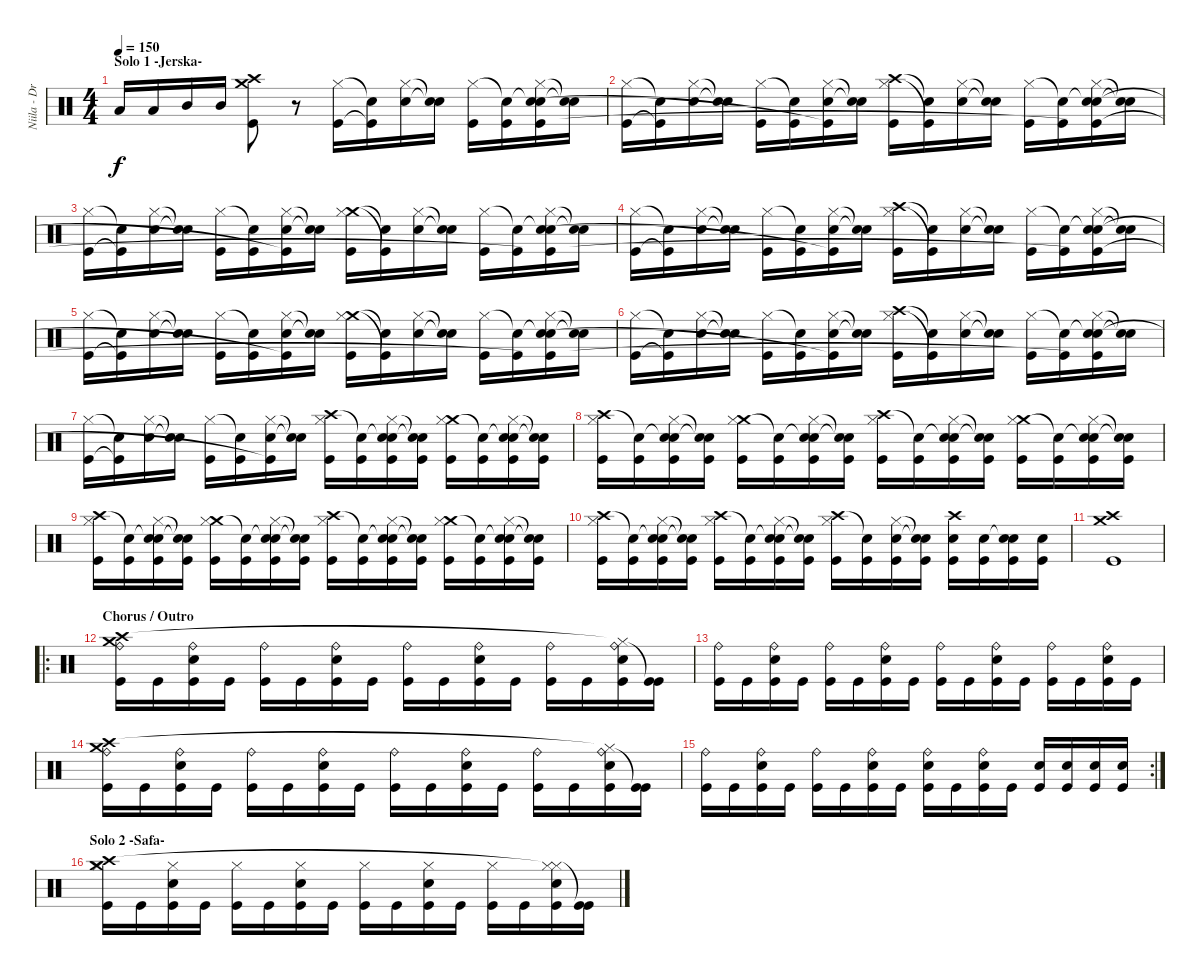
\track ("Niila - Drums" "Niila - Dr") {instrument percussion}
\staff {score}
\articulation defaults
\ts (4 4)
\section ("" "Solo 1 -Jerska-")
\tempo 150
\clef neutral
\ks c "Low Tom (hit)".16{dy f} "Low Tom (hit)".16 "Mid Tom (hit)".16 "Mid Tom (hit)".16
("Crash medium (hit)" "Crash high (hit)" "Kick (hit)").8 r.8 ("Hi-Hat (closed)" "Kick (hit)").16 ("Snare (hit)"{t} "Kick (hit)"{t}).16 ("Hi-Hat (closed)" "Snare (hit) 2").16 ("Snare (hit)"{t} "Snare (hit)"{t}).16 ("Hi-Hat (closed)" "Kick (hit)").16 ("Snare (hit)"{t} "Kick (hit)").16 ("Snare (hit)"{t} "Hi-Hat (closed)" "Snare (hit) 2" "Kick (hit)").16 ("Snare (hit)"{t} "Snare (hit)"{t}).16 |
("Hi-Hat (closed)" "Kick (hit)").16 ("Snare (hit)"{t} "Kick (hit)"{t}).16 ("Hi-Hat (closed)" "Snare (hit) 2").16 ("Snare (hit)"{t} "Snare (hit)"{t}).16 ("Hi-Hat (closed)" "Kick (hit)").16 ("Snare (hit)"{t} "Kick (hit)").16 ("Hi-Hat (closed)" "Snare (hit) 2" "Kick (hit)"{t}).16 ("Snare (hit)"{t} "Snare (hit)"{t}).16 ("Crash high (hit)" "Hi-Hat (closed)" "Kick (hit)").16 ("Snare (hit)"{t} "Kick (hit)"{t}).16 ("Hi-Hat (closed)" "Snare (hit) 2").16 ("Snare (hit)"{t} "Snare (hit)"{t}).16 ("Hi-Hat (closed)" "Kick (hit)").16 ("Snare (hit)"{t} "Kick (hit)").16 ("Snare (hit)"{t} "Hi-Hat (closed)" "Snare (hit) 2" "Kick (hit)"{t}).16 ("Snare (hit)"{t} "Snare (hit)"{t}).16 |
("Hi-Hat (closed)" "Kick (hit)").16 ("Snare (hit)"{t} "Kick (hit)"{t}).16 ("Hi-Hat (closed)" "Snare (hit) 2").16 ("Snare (hit)"{t} "Snare (hit)"{t}).16 ("Hi-Hat (closed)" "Kick (hit)").16 ("Snare (hit)"{t} "Kick (hit)").16 ("Hi-Hat (closed)" "Snare (hit) 2" "Kick (hit)"{t}).16 ("Snare (hit)"{t} "Snare (hit)"{t}).16 ("Crash medium (hit)" "Hi-Hat (closed)" "Kick (hit)").16 ("Snare (hit)"{t} "Kick (hit)"{t}).16 ("Hi-Hat (closed)" "Snare (hit) 2").16 ("Snare (hit)"{t} "Snare (hit)"{t}).16 ("Hi-Hat (closed)" "Kick (hit)").16 ("Snare (hit)"{t} "Kick (hit)").16 ("Snare (hit)"{t} "Hi-Hat (closed)" "Snare (hit) 2" "Kick (hit)"{t}).16 ("Snare (hit)"{t} "Snare (hit)"{t}).16 |
("Hi-Hat (closed)" "Kick (hit)").16 ("Snare (hit)"{t} "Kick (hit)"{t}).16 ("Hi-Hat (closed)" "Snare (hit) 2").16 ("Snare (hit)"{t} "Snare (hit)"{t}).16 ("Hi-Hat (closed)" "Kick (hit)").16 ("Snare (hit)"{t} "Kick (hit)").16 ("Hi-Hat (closed)" "Snare (hit) 2" "Kick (hit)"{t}).16 ("Snare (hit)"{t} "Snare (hit)"{t}).16 ("Crash high (hit)" "Hi-Hat (closed)" "Kick (hit)").16 ("Snare (hit)"{t} "Kick (hit)"{t}).16 ("Hi-Hat (closed)" "Snare (hit) 2").16 ("Snare (hit)"{t} "Snare (hit)"{t}).16 ("Hi-Hat (closed)" "Kick (hit)").16 ("Snare (hit)"{t} "Kick (hit)").16 ("Snare (hit)"{t} "Hi-Hat (closed)" "Snare (hit) 2" "Kick (hit)"{t}).16 ("Snare (hit)"{t} "Snare (hit)"{t}).16 |
("Hi-Hat (closed)" "Kick (hit)").16 ("Snare (hit)"{t} "Kick (hit)"{t}).16 ("Hi-Hat (closed)" "Snare (hit) 2").16 ("Snare (hit)"{t} "Snare (hit)"{t}).16 ("Hi-Hat (closed)" "Kick (hit)").16 ("Snare (hit)"{t} "Kick (hit)").16 ("Hi-Hat (closed)" "Snare (hit) 2" "Kick (hit)"{t}).16 ("Snare (hit)"{t} "Snare (hit)"{t}).16 ("Crash medium (hit)" "Hi-Hat (closed)" "Kick (hit)").16 ("Snare (hit)"{t} "Kick (hit)"{t}).16 ("Hi-Hat (closed)" "Snare (hit) 2").16 ("Snare (hit)"{t} "Snare (hit)"{t}).16 ("Hi-Hat (closed)" "Kick (hit)").16 ("Snare (hit)"{t} "Kick (hit)").16 ("Snare (hit)"{t} "Hi-Hat (closed)" "Snare (hit) 2" "Kick (hit)"{t}).16 ("Snare (hit)"{t} "Snare (hit)"{t}).16 |
("Hi-Hat (closed)" "Kick (hit)").16 ("Snare (hit)"{t} "Kick (hit)"{t}).16 ("Hi-Hat (closed)" "Snare (hit) 2").16 ("Snare (hit)"{t} "Snare (hit)"{t}).16 ("Hi-Hat (closed)" "Kick (hit)").16 ("Snare (hit)"{t} "Kick (hit)").16 ("Hi-Hat (closed)" "Snare (hit) 2" "Kick (hit)"{t}).16 ("Snare (hit)"{t} "Snare (hit)"{t}).16 ("Crash high (hit)" "Hi-Hat (closed)" "Kick (hit)").16 ("Snare (hit)"{t} "Kick (hit)"{t}).16 ("Hi-Hat (closed)" "Snare (hit) 2").16 ("Snare (hit)"{t} "Snare (hit)"{t}).16 ("Hi-Hat (closed)" "Kick (hit)").16 ("Snare (hit)"{t} "Kick (hit)").16 ("Snare (hit)"{t} "Hi-Hat (closed)" "Snare (hit) 2" "Kick (hit)"{t}).16 ("Snare (hit)"{t} "Snare (hit)"{t}).16 |
("Hi-Hat (closed)" "Kick (hit)").16 ("Snare (hit)"{t} "Kick (hit)"{t}).16 ("Hi-Hat (closed)" "Snare (hit) 2").16 ("Snare (hit)"{t} "Snare (hit)"{t}).16 ("Hi-Hat (closed)" "Kick (hit)").16 ("Snare (hit)"{t} "Kick (hit)").16 ("Hi-Hat (closed)" "Snare (hit) 2" "Kick (hit)"{t}).16 ("Snare (hit)"{t} "Snare (hit)"{t}).16 ("Crash high (hit)" "Hi-Hat (closed)" "Kick (hit)").16 ("Snare (hit)"{t} "Kick (hit)").16 ("Snare (hit)"{t} "Hi-Hat (closed)" "Snare (hit) 2" "Kick (hit)").16 ("Snare (hit)"{t} "Snare (hit)"{t} "Kick (hit)").16 ("Crash medium (hit)" "Hi-Hat (closed)" "Kick (hit)").16 ("Snare (hit)"{t} "Kick (hit)").16 ("Snare (hit)"{t} "Hi-Hat (closed)" "Snare (hit) 2" "Kick (hit)").16 ("Snare (hit)"{t} "Snare (hit)"{t} "Kick (hit)").16 |
("Crash high (hit)" "Hi-Hat (closed)" "Kick (hit)").16 ("Snare (hit)"{t} "Kick (hit)").16 ("Snare (hit)"{t} "Hi-Hat (closed)" "Snare (hit) 2" "Kick (hit)").16 ("Snare (hit)"{t} "Snare (hit)"{t} "Kick (hit)").16 ("Crash medium (hit)" "Hi-Hat (closed)" "Kick (hit)").16 ("Snare (hit)"{t} "Kick (hit)").16 ("Snare (hit)"{t} "Hi-Hat (closed)" "Snare (hit) 2" "Kick (hit)").16 ("Snare (hit)"{t} "Snare (hit)"{t} "Kick (hit)").16 ("Crash high (hit)" "Hi-Hat (closed)" "Kick (hit)").16 ("Snare (hit)"{t} "Kick (hit)").16 ("Snare (hit)"{t} "Hi-Hat (closed)" "Snare (hit) 2" "Kick (hit)").16 ("Snare (hit)"{t} "Snare (hit)"{t} "Kick (hit)").16 ("Crash medium (hit)" "Hi-Hat (closed)" "Kick (hit)").16 ("Snare (hit)"{t} "Kick (hit)").16 ("Snare (hit)"{t} "Hi-Hat (closed)" "Snare (hit) 2" "Kick (hit)").16 ("Snare (hit)"{t} "Snare (hit)"{t} "Kick (hit)").16 |
("Crash high (hit)" "Hi-Hat (closed)" "Kick (hit)").16 ("Snare (hit)"{t} "Kick (hit)").16 ("Snare (hit)"{t} "Hi-Hat (closed)" "Snare (hit) 2" "Kick (hit)").16 ("Snare (hit)"{t} "Snare (hit)"{t} "Kick (hit)").16 ("Crash medium (hit)" "Hi-Hat (closed)" "Kick (hit)").16 ("Snare (hit)"{t} "Kick (hit)").16 ("Snare (hit)"{t} "Hi-Hat (closed)" "Snare (hit) 2" "Kick (hit)").16 ("Snare (hit)"{t} "Snare (hit)"{t} "Kick (hit)").16 ("Crash high (hit)" "Hi-Hat (closed)" "Kick (hit)").16 ("Snare (hit)"{t} "Kick (hit)").16 ("Snare (hit)"{t} "Hi-Hat (closed)" "Snare (hit) 2" "Kick (hit)").16 ("Snare (hit)"{t} "Snare (hit)"{t} "Kick (hit)").16 ("Crash medium (hit)" "Hi-Hat (closed)" "Kick (hit)").16 ("Snare (hit)"{t} "Kick (hit)").16 ("Snare (hit)"{t} "Hi-Hat (closed)" "Snare (hit) 2" "Kick (hit)").16 ("Snare (hit)"{t} "Snare (hit)"{t} "Kick (hit)").16 |
("Crash high (hit)" "Hi-Hat (closed)" "Kick (hit)").16 ("Snare (hit)"{t} "Kick (hit)").16 ("Snare (hit)"{t} "Hi-Hat (closed)" "Snare (hit) 2" "Kick (hit)").16 ("Snare (hit)"{t} "Snare (hit)"{t} "Kick (hit)").16 ("Crash high (hit)" "Hi-Hat (closed)" "Kick (hit)").16 ("Snare (hit)"{t} "Kick (hit)").16 ("Snare (hit)"{t} "Hi-Hat (closed)" "Snare (hit) 2" "Kick (hit)").16 ("Snare (hit)"{t} "Snare (hit)"{t} "Kick (hit)").16 ("Crash high (hit)" "Hi-Hat (closed)" "Kick (hit)").16 ("Snare (hit)"{t} "Kick (hit)").16 ("Hi-Hat (closed)" "Snare (hit) 2" "Kick (hit)").16 ("Snare (hit)"{t} "Snare (hit)"{t} "Kick (hit)").16 ("Crash high (hit)" "Snare (hit) 2" "Kick (hit)").16 ("Snare (hit) 2" "Kick (hit)").16 ("Snare (hit)"{t} "Snare (hit) 2" "Kick (hit)").16 ("Snare (hit) 2" "Kick (hit)").16 |
("Crash medium (hit)" "Crash high (hit)" "Kick (hit)").1 |
\ro
\section ("" "Chorus / Outro")
("Crash medium (hit)" "Ride (bell)" "Kick (hit)" "Crash high (hit)").16 "Kick (hit)".16 ("Ride (bell)" "Snare (hit) 2" "Kick (hit)").16 "Kick (hit)".16 ("Ride (bell)" "Kick (hit)").16 "Kick (hit)".16 ("Ride (bell)" "Snare (hit) 2" "Kick (hit)").16 "Kick (hit)".16 ("Ride (bell)" "Kick (hit)").16 "Kick (hit)".16 ("Ride (bell)" "Snare (hit) 2" "Kick (hit)").16 "Kick (hit)".16 ("Ride (bell)" "Kick (hit)").16 "Kick (hit)".16 ("Ride (bell)" "Snare (hit) 2" "Kick (hit)" "Hi-Hat (closed)"{t}).16 ("Kick (hit)"{t} "Kick (hit)").16 |
("Ride (bell)" "Kick (hit)").16 "Kick (hit)".16 ("Ride (bell)" "Snare (hit) 2" "Kick (hit)").16 "Kick (hit)".16 ("Ride (bell)" "Kick (hit)").16 "Kick (hit)".16 ("Ride (bell)" "Snare (hit) 2" "Kick (hit)").16 "Kick (hit)".16 ("Ride (bell)" "Kick (hit)").16 "Kick (hit)".16 ("Ride (bell)" "Snare (hit) 2" "Kick (hit)").16 "Kick (hit)".16 ("Ride (bell)" "Kick (hit)").16 "Kick (hit)".16 ("Ride (bell)" "Snare (hit) 2" "Kick (hit)").16 "Kick (hit)".16 |
("Crash medium (hit)" "Ride (bell)" "Kick (hit)" "Crash high (hit)").16 "Kick (hit)".16 ("Ride (bell)" "Snare (hit) 2" "Kick (hit)").16 "Kick (hit)".16 ("Ride (bell)" "Kick (hit)").16 "Kick (hit)".16 ("Ride (bell)" "Snare (hit) 2" "Kick (hit)").16 "Kick (hit)".16 ("Ride (bell)" "Kick (hit)").16 "Kick (hit)".16 ("Ride (bell)" "Snare (hit) 2" "Kick (hit)").16 "Kick (hit)".16 ("Ride (bell)" "Kick (hit)").16 "Kick (hit)".16 ("Ride (bell)" "Snare (hit) 2" "Kick (hit)" "Hi-Hat (closed)"{t}).16 ("Kick (hit)"{t} "Kick (hit)").16 |
\rc 2
("Ride (bell)" "Kick (hit)").16 "Kick (hit)".16 ("Ride (bell)" "Snare (hit) 2" "Kick (hit)").16 "Kick (hit)".16 ("Ride (bell)" "Kick (hit)").16 "Kick (hit)".16 ("Ride (bell)" "Snare (hit) 2" "Kick (hit)").16 "Kick (hit)".16 ("Ride (bell)" "Snare (hit) 2" "Kick (hit)").16 "Kick (hit)".16 ("Ride (bell)" "Snare (hit) 2" "Kick (hit)").16 "Kick (hit)".16 ("Snare (hit) 2" "Kick (hit)").16 ("Snare (hit) 2" "Kick (hit)").16 ("Snare (hit) 2" "Kick (hit)").16 ("Snare (hit) 2" "Kick (hit)").16 |
\section ("" "Solo 2 -Safa-")
("Crash medium (hit)" "Hi-Hat (closed)" "Kick (hit)" "Crash high (hit)").16 "Kick (hit)".16 ("Hi-Hat (closed)" "Snare (hit) 2" "Kick (hit)").16 "Kick (hit)".16 ("Hi-Hat (closed)" "Kick (hit)").16 "Kick (hit)".16 ("Hi-Hat (closed)" "Snare (hit) 2" "Kick (hit)").16 "Kick (hit)".16 ("Hi-Hat (closed)" "Kick (hit)").16 "Kick (hit)".16 ("Hi-Hat (closed)" "Snare (hit) 2" "Kick (hit)").16 "Kick (hit)".16 ("Hi-Hat (closed)" "Kick (hit)").16 "Kick (hit)".16 ("Hi-Hat (closed)" "Snare (hit) 2" "Kick (hit)" "Hi-Hat (closed)"{t}).16 ("Kick (hit)"{t} "Kick (hit)").16
